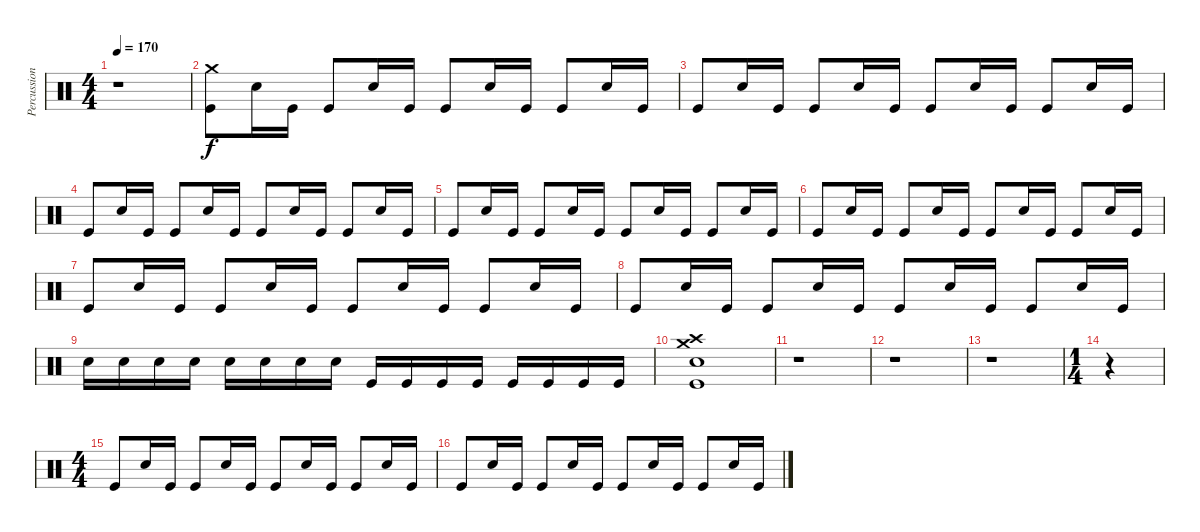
\track ("Percussions" "Percussion") {instrument percussion}
\staff {score}
\articulation defaults
\ts (4 4)
\tempo 170
\clef neutral
\ks c
r.1{dy f} |
("Crash medium (hit)" "Kick (hit)").8 "Snare (hit) 2".16 "Kick (hit)".16 "Kick (hit)".8 "Snare (hit) 2".16 "Kick (hit)".16 "Kick (hit)".8 "Snare (hit) 2".16 "Kick (hit)".16 "Kick (hit)".8 "Snare (hit) 2".16 "Kick (hit)".16 |
"Kick (hit)".8 "Snare (hit) 2".16 "Kick (hit)".16 "Kick (hit)".8 "Snare (hit) 2".16 "Kick (hit)".16 "Kick (hit)".8 "Snare (hit) 2".16 "Kick (hit)".16 "Kick (hit)".8 "Snare (hit) 2".16 "Kick (hit)".16 |
"Kick (hit)".8 "Snare (hit) 2".16 "Kick (hit)".16 "Kick (hit)".8 "Snare (hit) 2".16 "Kick (hit)".16 "Kick (hit)".8 "Snare (hit) 2".16 "Kick (hit)".16 "Kick (hit)".8 "Snare (hit) 2".16 "Kick (hit)".16 |
"Kick (hit)".8 "Snare (hit) 2".16 "Kick (hit)".16 "Kick (hit)".8 "Snare (hit) 2".16 "Kick (hit)".16 "Kick (hit)".8 "Snare (hit) 2".16 "Kick (hit)".16 "Kick (hit)".8 "Snare (hit) 2".16 "Kick (hit)".16 |
"Kick (hit)".8 "Snare (hit) 2".16 "Kick (hit)".16 "Kick (hit)".8 "Snare (hit) 2".16 "Kick (hit)".16 "Kick (hit)".8 "Snare (hit) 2".16 "Kick (hit)".16 "Kick (hit)".8 "Snare (hit) 2".16 "Kick (hit)".16 |
"Kick (hit)".8 "Snare (hit) 2".16 "Kick (hit)".16 "Kick (hit)".8 "Snare (hit) 2".16 "Kick (hit)".16 "Kick (hit)".8 "Snare (hit) 2".16 "Kick (hit)".16 "Kick (hit)".8 "Snare (hit) 2".16 "Kick (hit)".16 |
"Kick (hit)".8 "Snare (hit) 2".16 "Kick (hit)".16 "Kick (hit)".8 "Snare (hit) 2".16 "Kick (hit)".16 "Kick (hit)".8 "Snare (hit) 2".16 "Kick (hit)".16 "Kick (hit)".8 "Snare (hit) 2".16 "Kick (hit)".16 |
"Snare (hit) 2".16 "Snare (hit) 2".16 "Snare (hit) 2".16 "Snare (hit) 2".16 "Snare (hit) 2".16 "Snare (hit) 2".16 "Snare (hit) 2".16 "Snare (hit) 2".16 "Kick (hit)".16 "Kick (hit)".16 "Kick (hit)".16 "Kick (hit)".16 "Kick (hit)".16 "Kick (hit)".16 "Kick (hit)".16 "Kick (hit)".16 |
("Crash high (hit)" "Crash medium (hit)" "Snare (hit) 2" "Kick (hit)").1 |
r.1 |
r.1 |
r.1 |
\ts (1 4)
r.4 |
\ts (4 4)
"Kick (hit)".8 "Snare (hit) 2".16 "Kick (hit)".16 "Kick (hit)".8 "Snare (hit) 2".16 "Kick (hit)".16 "Kick (hit)".8 "Snare (hit) 2".16 "Kick (hit)".16 "Kick (hit)".8 "Snare (hit) 2".16 "Kick (hit)".16 |
"Kick (hit)".8 "Snare (hit) 2".16 "Kick (hit)".16 "Kick (hit)".8 "Snare (hit) 2".16 "Kick (hit)".16 "Kick (hit)".8 "Snare (hit) 2".16 "Kick (hit)".16 "Kick (hit)".8 "Snare (hit) 2".16 "Kick (hit)".16
